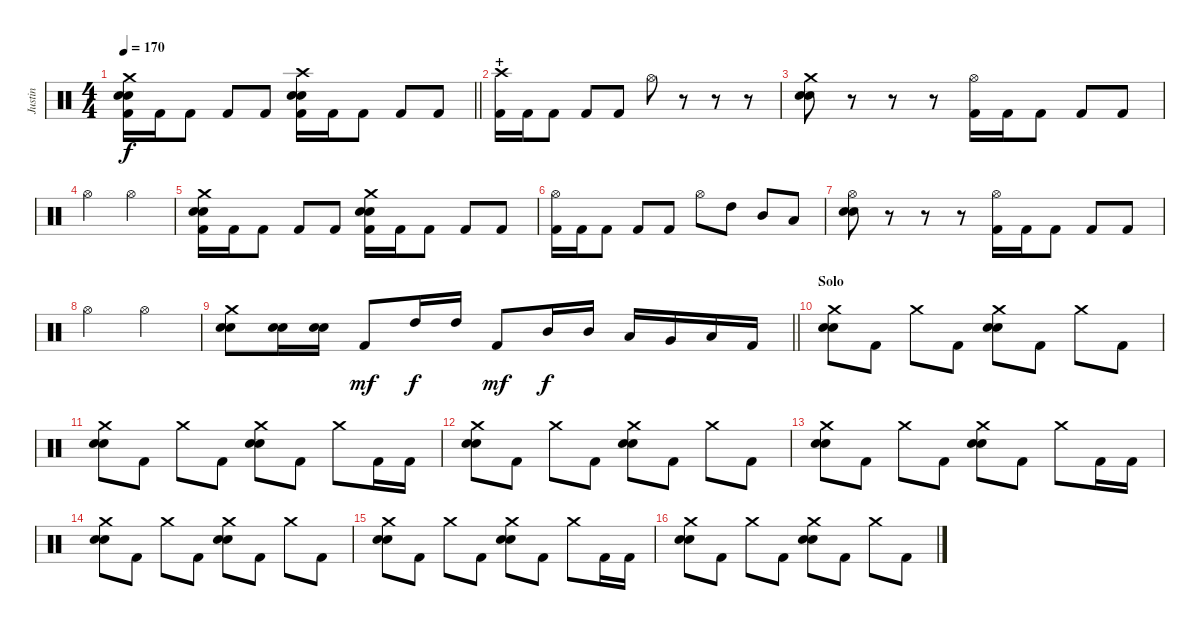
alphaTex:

\track ("Justin" "Justin") {instrument percussion}
\staff {score}
\articulation defaults
\ts (4 4)
\tempo 170
\clef neutral
\barLineRight lightlight
\ks c
("Crash medium (hit)" "Electric Snare (hit)" "Snare (hit) 2" "Kick (hit) 2").16{dy f} "Kick (hit) 2".16 "Kick (hit) 2".8 "Kick (hit) 2".8 "Kick (hit) 2".8 ("Crash high (hit)" "Electric Snare (hit)" "Snare (hit) 2" "Kick (hit) 2").16 "Kick (hit) 2".16 "Kick (hit) 2".8 "Kick (hit) 2".8 "Kick (hit) 2".8 |
\section ("" "+")
("Crash high (hit)" "Kick (hit) 2").16 "Kick (hit) 2".16 "Kick (hit) 2".8 "Kick (hit) 2".8 "Kick (hit) 2".8 "Hi-Hat (open)".8 r.8 r.8 r.8 |
("Crash medium (hit)" "Electric Snare (hit)" "Snare (hit) 2").8 r.8 r.8 r.8 ("Hi-Hat (open)" "Kick (hit) 2").16 "Kick (hit) 2".16 "Kick (hit) 2".8 "Kick (hit) 2".8 "Kick (hit) 2".8 |
"Hi-Hat (open)".2 "Hi-Hat (open)".2 |
("Crash medium (hit)" "Electric Snare (hit)" "Snare (hit) 2" "Kick (hit) 2").16 "Kick (hit) 2".16 "Kick (hit) 2".8 "Kick (hit) 2".8 "Kick (hit) 2".8 ("Crash medium (hit)" "Electric Snare (hit)" "Snare (hit) 2" "Kick (hit) 2").16 "Kick (hit) 2".16 "Kick (hit) 2".8 "Kick (hit) 2".8 "Kick (hit) 2".8 |
("Hi-Hat (open)" "Kick (hit) 2").16 "Kick (hit) 2".16 "Kick (hit) 2".8 "Kick (hit) 2".8 "Kick (hit) 2".8 "Hi-Hat (open)".8 "High Tom (hit)".8 "Mid Tom (hit)".8 "Low Tom (hit)".8 |
("Hi-Hat (open)" "Electric Snare (hit)" "Snare (hit) 2").8 r.8 r.8 r.8 ("Hi-Hat (open)" "Kick (hit) 2").16 "Kick (hit) 2".16 "Kick (hit) 2".8 "Kick (hit) 2".8 "Kick (hit) 2".8 |
"Hi-Hat (open)".2 "Hi-Hat (open)".2 |
\barLineRight lightlight
("Crash medium (hit)" "Electric Snare (hit)" "Snare (hit) 2").8 ("Electric Snare (hit)" "Snare (hit) 2").16 ("Electric Snare (hit)" "Snare (hit) 2").16 "Kick (hit) 2".8{dy mf} "High Tom (hit)".16{dy f} "High Tom (hit)".16 "Kick (hit) 2".8{dy mf} "Mid Tom (hit)".16{dy f} "Mid Tom (hit)".16 "Low Tom (hit)".16 "Very Low Tom (hit)".16 "Low Floor Tom (hit)".16 "Kick (hit) 2".16 |
\section ("" "Solo")
("Crash medium (hit)" "Electric Snare (hit)" "Snare (hit) 2").8 "Kick (hit) 2".8 "Crash medium (hit)".8 "Kick (hit) 2".8 ("Crash medium (hit)" "Electric Snare (hit)" "Snare (hit) 2").8 "Kick (hit) 2".8 "Crash medium (hit)".8 "Kick (hit) 2".8 |
("Crash medium (hit)" "Electric Snare (hit)" "Snare (hit) 2").8 "Kick (hit) 2".8 "Crash medium (hit)".8 "Kick (hit) 2".8 ("Crash medium (hit)" "Electric Snare (hit)" "Snare (hit) 2").8 "Kick (hit) 2".8 "Crash medium (hit)".8 "Kick (hit) 2".16 "Kick (hit) 2".16 |
("Crash medium (hit)" "Electric Snare (hit)" "Snare (hit) 2").8 "Kick (hit) 2".8 "Crash medium (hit)".8 "Kick (hit) 2".8 ("Crash medium (hit)" "Electric Snare (hit)" "Snare (hit) 2").8 "Kick (hit) 2".8 "Crash medium (hit)".8 "Kick (hit) 2".8 |
("Crash medium (hit)" "Electric Snare (hit)" "Snare (hit) 2").8 "Kick (hit) 2".8 "Crash medium (hit)".8 "Kick (hit) 2".8 ("Crash medium (hit)" "Electric Snare (hit)" "Snare (hit) 2").8 "Kick (hit) 2".8 "Crash medium (hit)".8 "Kick (hit) 2".16 "Kick (hit) 2".16 |
("Crash medium (hit)" "Electric Snare (hit)" "Snare (hit) 2").8 "Kick (hit) 2".8 "Crash medium (hit)".8 "Kick (hit) 2".8 ("Crash medium (hit)" "Electric Snare (hit)" "Snare (hit) 2").8 "Kick (hit) 2".8 "Crash medium (hit)".8 "Kick (hit) 2".8 |
("Crash medium (hit)" "Electric Snare (hit)" "Snare (hit) 2").8 "Kick (hit) 2".8 "Crash medium (hit)".8 "Kick (hit) 2".8 ("Crash medium (hit)" "Electric Snare (hit)" "Snare (hit) 2").8 "Kick (hit) 2".8 "Crash medium (hit)".8 "Kick (hit) 2".16 "Kick (hit) 2".16 |
("Crash medium (hit)" "Electric Snare (hit)" "Snare (hit) 2").8 "Kick (hit) 2".8 "Crash medium (hit)".8 "Kick (hit) 2".8 ("Crash medium (hit)" "Electric Snare (hit)" "Snare (hit) 2").8 "Kick (hit) 2".8 "Crash medium (hit)".8 "Kick (hit) 2".8
